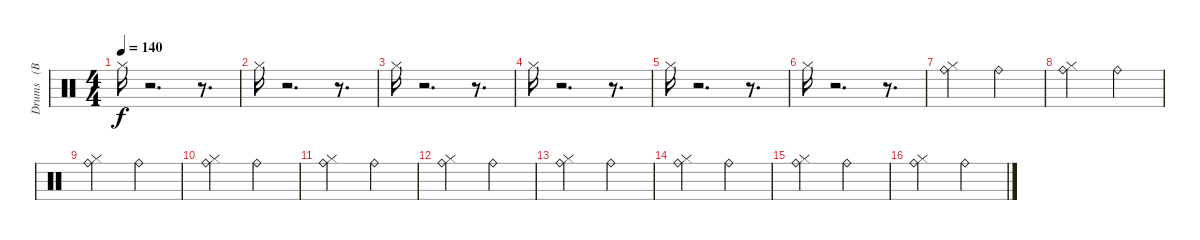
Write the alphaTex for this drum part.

\track ("Drums   (BB)" "Drums   (B") {instrument percussion}
\staff {score}
\articulation defaults
\ts (4 4)
\tempo 140
\clef neutral
\ks c "Hi-Hat (closed)".16{dy f}
r.2{d} r.8{d} |
"Hi-Hat (closed)".16 r.2{d} r.8{d} |
"Hi-Hat (closed)".16 r.2{d} r.8{d} |
"Hi-Hat (closed)".16 r.2{d} r.8{d} |
"Hi-Hat (closed)".16 r.2{d} r.8{d} |
"Hi-Hat (closed)".16 r.2{d} r.8{d} |
("Ride (bell)" "Hi-Hat (closed)").2 "Ride (bell)".2 |
("Ride (bell)" "Hi-Hat (closed)").2 "Ride (bell)".2 |
("Ride (bell)" "Hi-Hat (closed)").2 "Ride (bell)".2 |
("Ride (bell)" "Hi-Hat (closed)").2 "Ride (bell)".2 |
("Ride (bell)" "Hi-Hat (closed)").2 "Ride (bell)".2 |
("Ride (bell)" "Hi-Hat (closed)").2 "Ride (bell)".2 |
("Ride (bell)" "Hi-Hat (closed)").2 "Ride (bell)".2 |
("Ride (bell)" "Hi-Hat (closed)").2 "Ride (bell)".2 |
("Ride (bell)" "Hi-Hat (closed)").2 "Ride (bell)".2 |
("Ride (bell)" "Hi-Hat (closed)").2 "Ride (bell)".2
